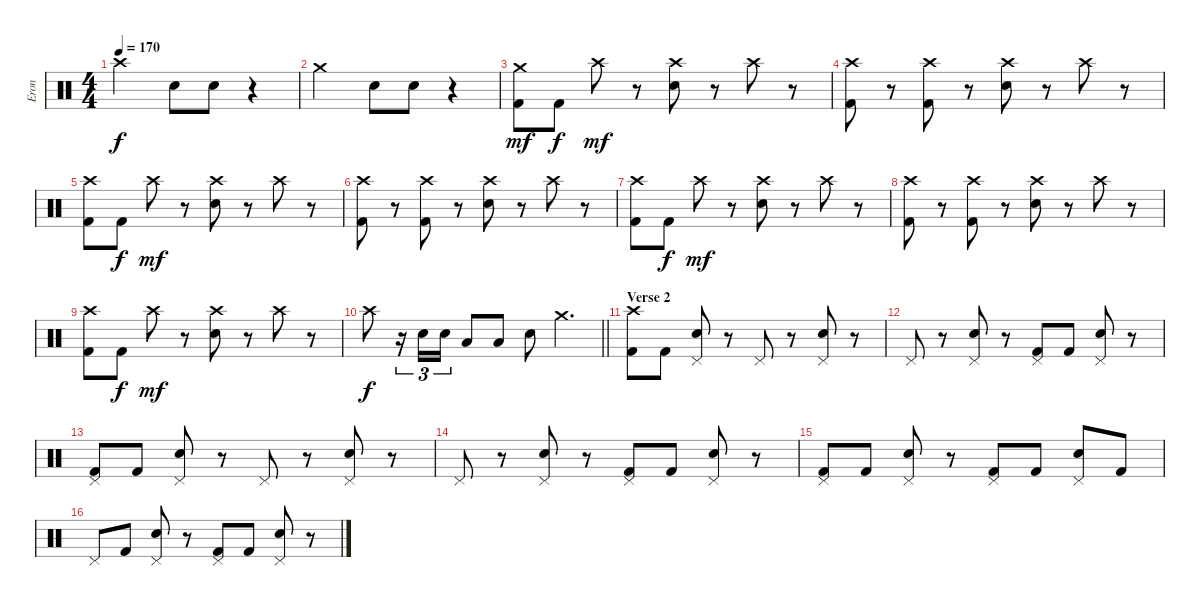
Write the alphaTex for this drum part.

\track ("Eron" "Eron") {instrument percussion}
\staff {score}
\articulation defaults
\ts (4 4)
\tempo 170
\clef neutral
\ks c "Crash high (hit)".2{dy f} "Snare (hit) 2".8 "Snare (hit) 2".8
r.4 |
"Crash medium (hit)".2 "Snare (hit) 2".8 "Snare (hit) 2".8 r.4 |
("Crash medium (hit)" "Kick (hit) 2").8{dy mf} "Kick (hit) 2".8{dy f} "Crash high (hit)".8{dy mf} r.8 ("Crash high (hit)" "Snare (hit) 2").8 r.8 "Crash high (hit)".8 r.8 |
("Crash high (hit)" "Kick (hit) 2").8 r.8 ("Crash high (hit)" "Kick (hit) 2").8 r.8 ("Crash high (hit)" "Snare (hit) 2").8 r.8 "Crash high (hit)".8 r.8 |
("Crash high (hit)" "Kick (hit) 2").8 "Kick (hit) 2".8{dy f} "Crash high (hit)".8{dy mf} r.8 ("Crash high (hit)" "Snare (hit) 2").8 r.8 "Crash high (hit)".8 r.8 |
("Crash high (hit)" "Kick (hit) 2").8 r.8 ("Crash high (hit)" "Kick (hit) 2").8 r.8 ("Crash high (hit)" "Snare (hit) 2").8 r.8 "Crash high (hit)".8 r.8 |
("Crash high (hit)" "Kick (hit) 2").8 "Kick (hit) 2".8{dy f} "Crash high (hit)".8{dy mf} r.8 ("Crash high (hit)" "Snare (hit) 2").8 r.8 "Crash high (hit)".8 r.8 |
("Crash high (hit)" "Kick (hit) 2").8 r.8 ("Crash high (hit)" "Kick (hit) 2").8 r.8 ("Crash high (hit)" "Snare (hit) 2").8 r.8 "Crash high (hit)".8 r.8 |
("Crash high (hit)" "Kick (hit) 2").8 "Kick (hit) 2".8{dy f} "Crash high (hit)".8{dy mf} r.8 ("Crash high (hit)" "Snare (hit) 2").8 r.8 "Crash high (hit)".8 r.8 |
\barLineRight lightlight "Crash high (hit)".8{dy f}
r.16{tu (3 2)} "Snare (hit) 2".16{tu (3 2)} "Snare (hit) 2".16{tu (3 2)} "Low Tom (hit)".8 "Low Floor Tom (hit)".8 "Snare (hit) 2".8 "Crash medium (hit)".4{d} |
\section ("" "Verse 2")
("Crash high (hit)" "Kick (hit) 2").8 "Kick (hit) 2".8 ("Pedal Hi-Hat (hit)" "Snare (hit) 2").8 r.8 "Pedal Hi-Hat (hit)".8 r.8 ("Pedal Hi-Hat (hit)" "Snare (hit) 2").8 r.8 |
"Pedal Hi-Hat (hit)".8 r.8 ("Pedal Hi-Hat (hit)" "Snare (hit) 2").8 r.8 ("Pedal Hi-Hat (hit)" "Kick (hit) 2").8 "Kick (hit) 2".8 ("Pedal Hi-Hat (hit)" "Snare (hit) 2").8 r.8 |
("Pedal Hi-Hat (hit)" "Kick (hit) 2").8 "Kick (hit) 2".8 ("Pedal Hi-Hat (hit)" "Snare (hit) 2").8 r.8 "Pedal Hi-Hat (hit)".8 r.8 ("Pedal Hi-Hat (hit)" "Snare (hit) 2").8 r.8 |
"Pedal Hi-Hat (hit)".8 r.8 ("Pedal Hi-Hat (hit)" "Snare (hit) 2").8 r.8 ("Pedal Hi-Hat (hit)" "Kick (hit) 2").8 "Kick (hit) 2".8 ("Pedal Hi-Hat (hit)" "Snare (hit) 2").8 r.8 |
("Pedal Hi-Hat (hit)" "Kick (hit) 2").8 "Kick (hit) 2".8 ("Pedal Hi-Hat (hit)" "Snare (hit) 2").8 r.8 ("Pedal Hi-Hat (hit)" "Kick (hit) 2").8 "Kick (hit) 2".8 ("Pedal Hi-Hat (hit)" "Snare (hit) 2").8 "Kick (hit) 2".8 |
"Pedal Hi-Hat (hit)".8 "Kick (hit) 2".8 ("Pedal Hi-Hat (hit)" "Snare (hit) 2").8 r.8 ("Pedal Hi-Hat (hit)" "Kick (hit) 2").8 "Kick (hit) 2".8 ("Pedal Hi-Hat (hit)" "Snare (hit) 2").8 r.8
